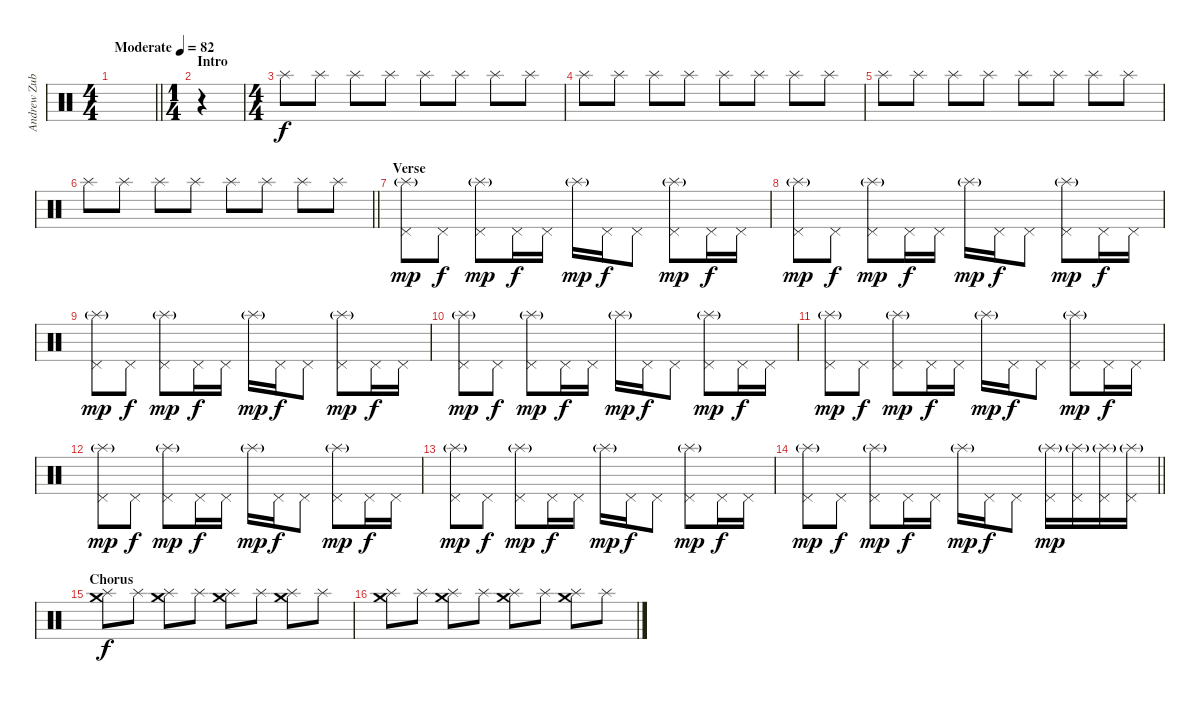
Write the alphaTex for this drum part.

\track ("Andrew Zubiszewski (Drums)" "Andrew Zub") {instrument percussion}
\staff {score}
\articulation defaults
\ts (4 4)
\tempo (82 "Moderate")
\clef neutral
\barLineRight lightlight
\ks c
|
\ts (1 4)
\section ("" "Intro")
r.4 |
\ts (4 4)
"Splash (hit)".8 "Splash (hit)".8 "Splash (hit)".8 "Splash (hit)".8 "Splash (hit)".8 "Splash (hit)".8 "Splash (hit)".8 "Splash (hit)".8 |
"Splash (hit)".8 "Splash (hit)".8 "Splash (hit)".8 "Splash (hit)".8 "Splash (hit)".8 "Splash (hit)".8 "Splash (hit)".8 "Splash (hit)".8 |
"Splash (hit)".8 "Splash (hit)".8 "Splash (hit)".8 "Splash (hit)".8 "Splash (hit)".8 "Splash (hit)".8 "Splash (hit)".8 "Splash (hit)".8 |
\barLineRight lightlight "Splash (hit)".8 "Splash (hit)".8 "Splash (hit)".8 "Splash (hit)".8 "Splash (hit)".8 "Splash (hit)".8 "Splash (hit)".8 "Splash (hit)".8
|
\section ("" "Verse")
("Splash (hit)"{g} "Pedal Hi-Hat (hit)").8{dy mp} "Pedal Hi-Hat (hit)".8{dy f} ("Splash (hit)"{g} "Pedal Hi-Hat (hit)").8{dy mp} "Pedal Hi-Hat (hit)".16{dy f} "Pedal Hi-Hat (hit)".16 "Splash (hit)"{g}.16{dy mp} "Pedal Hi-Hat (hit)".16{dy f} "Pedal Hi-Hat (hit)".8 ("Splash (hit)"{g} "Pedal Hi-Hat (hit)").8{dy mp} "Pedal Hi-Hat (hit)".16{dy f} "Pedal Hi-Hat (hit)".16 |
("Splash (hit)"{g} "Pedal Hi-Hat (hit)").8{dy mp} "Pedal Hi-Hat (hit)".8{dy f} ("Splash (hit)"{g} "Pedal Hi-Hat (hit)").8{dy mp} "Pedal Hi-Hat (hit)".16{dy f} "Pedal Hi-Hat (hit)".16 "Splash (hit)"{g}.16{dy mp} "Pedal Hi-Hat (hit)".16{dy f} "Pedal Hi-Hat (hit)".8 ("Splash (hit)"{g} "Pedal Hi-Hat (hit)").8{dy mp} "Pedal Hi-Hat (hit)".16{dy f} "Pedal Hi-Hat (hit)".16 |
("Splash (hit)"{g} "Pedal Hi-Hat (hit)").8{dy mp} "Pedal Hi-Hat (hit)".8{dy f} ("Splash (hit)"{g} "Pedal Hi-Hat (hit)").8{dy mp} "Pedal Hi-Hat (hit)".16{dy f} "Pedal Hi-Hat (hit)".16 "Splash (hit)"{g}.16{dy mp} "Pedal Hi-Hat (hit)".16{dy f} "Pedal Hi-Hat (hit)".8 ("Splash (hit)"{g} "Pedal Hi-Hat (hit)").8{dy mp} "Pedal Hi-Hat (hit)".16{dy f} "Pedal Hi-Hat (hit)".16 |
("Splash (hit)"{g} "Pedal Hi-Hat (hit)").8{dy mp} "Pedal Hi-Hat (hit)".8{dy f} ("Splash (hit)"{g} "Pedal Hi-Hat (hit)").8{dy mp} "Pedal Hi-Hat (hit)".16{dy f} "Pedal Hi-Hat (hit)".16 "Splash (hit)"{g}.16{dy mp} "Pedal Hi-Hat (hit)".16{dy f} "Pedal Hi-Hat (hit)".8 ("Splash (hit)"{g} "Pedal Hi-Hat (hit)").8{dy mp} "Pedal Hi-Hat (hit)".16{dy f} "Pedal Hi-Hat (hit)".16 |
("Splash (hit)"{g} "Pedal Hi-Hat (hit)").8{dy mp} "Pedal Hi-Hat (hit)".8{dy f} ("Splash (hit)"{g} "Pedal Hi-Hat (hit)").8{dy mp} "Pedal Hi-Hat (hit)".16{dy f} "Pedal Hi-Hat (hit)".16 "Splash (hit)"{g}.16{dy mp} "Pedal Hi-Hat (hit)".16{dy f} "Pedal Hi-Hat (hit)".8 ("Splash (hit)"{g} "Pedal Hi-Hat (hit)").8{dy mp} "Pedal Hi-Hat (hit)".16{dy f} "Pedal Hi-Hat (hit)".16 |
("Splash (hit)"{g} "Pedal Hi-Hat (hit)").8{dy mp} "Pedal Hi-Hat (hit)".8{dy f} ("Splash (hit)"{g} "Pedal Hi-Hat (hit)").8{dy mp} "Pedal Hi-Hat (hit)".16{dy f} "Pedal Hi-Hat (hit)".16 "Splash (hit)"{g}.16{dy mp} "Pedal Hi-Hat (hit)".16{dy f} "Pedal Hi-Hat (hit)".8 ("Splash (hit)"{g} "Pedal Hi-Hat (hit)").8{dy mp} "Pedal Hi-Hat (hit)".16{dy f} "Pedal Hi-Hat (hit)".16 |
("Splash (hit)"{g} "Pedal Hi-Hat (hit)").8{dy mp} "Pedal Hi-Hat (hit)".8{dy f} ("Splash (hit)"{g} "Pedal Hi-Hat (hit)").8{dy mp} "Pedal Hi-Hat (hit)".16{dy f} "Pedal Hi-Hat (hit)".16 "Splash (hit)"{g}.16{dy mp} "Pedal Hi-Hat (hit)".16{dy f} "Pedal Hi-Hat (hit)".8 ("Splash (hit)"{g} "Pedal Hi-Hat (hit)").8{dy mp} "Pedal Hi-Hat (hit)".16{dy f} "Pedal Hi-Hat (hit)".16 |
\barLineRight lightlight
("Splash (hit)"{g} "Pedal Hi-Hat (hit)").8{dy mp} "Pedal Hi-Hat (hit)".8{dy f} ("Splash (hit)"{g} "Pedal Hi-Hat (hit)").8{dy mp} "Pedal Hi-Hat (hit)".16{dy f} "Pedal Hi-Hat (hit)".16 "Splash (hit)"{g}.16{dy mp} "Pedal Hi-Hat (hit)".16{dy f} "Pedal Hi-Hat (hit)".8 ("Splash (hit)"{g} "Pedal Hi-Hat (hit)").16{dy mp} ("Splash (hit)"{g} "Pedal Hi-Hat (hit)").16 ("Splash (hit)"{g} "Pedal Hi-Hat (hit)").16 ("Splash (hit)"{g} "Pedal Hi-Hat (hit)").16 |
\section ("" "Chorus")
("Crash medium (hit)" "Splash (hit)").8{dy f} "Splash (hit)".8 ("Crash medium (hit)" "Splash (hit)").8 "Splash (hit)".8 ("Crash medium (hit)" "Splash (hit)").8 "Splash (hit)".8 ("Crash medium (hit)" "Splash (hit)").8 "Splash (hit)".8 |
("Crash medium (hit)" "Splash (hit)").8 "Splash (hit)".8 ("Crash medium (hit)" "Splash (hit)").8 "Splash (hit)".8 ("Crash medium (hit)" "Splash (hit)").8 "Splash (hit)".8 ("Crash medium (hit)" "Splash (hit)").8 "Splash (hit)".8
